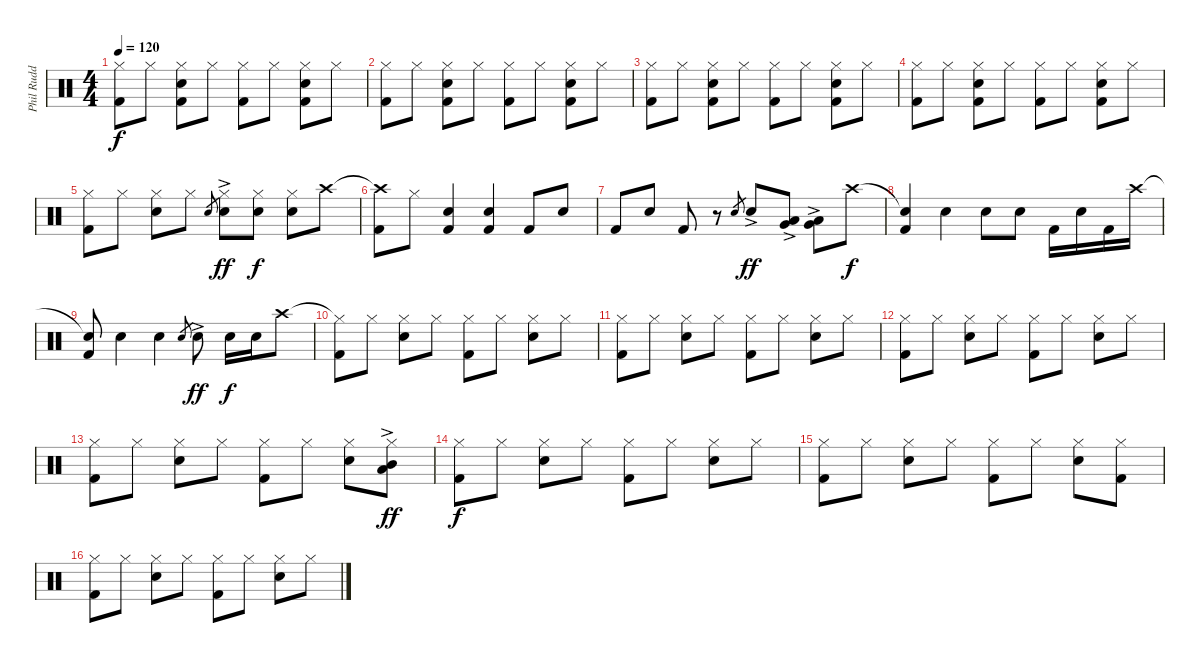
\track ("Phil Rudd" "Phil Rudd") {instrument percussion}
\staff {score}
\articulation defaults
\ts (4 4)
\tempo 120
\clef neutral
\ks c
("Hi-Hat (closed)" "Kick (hit) 2").8{dy f} "Hi-Hat (closed)".8 ("Hi-Hat (closed)" "Snare (hit) 2" "Kick (hit) 2").8 "Hi-Hat (closed)".8 ("Hi-Hat (closed)" "Kick (hit) 2").8 "Hi-Hat (closed)".8 ("Hi-Hat (closed)" "Snare (hit) 2" "Kick (hit) 2").8 "Hi-Hat (closed)".8 |
("Hi-Hat (closed)" "Kick (hit) 2").8 "Hi-Hat (closed)".8 ("Hi-Hat (closed)" "Snare (hit) 2" "Kick (hit) 2").8 "Hi-Hat (closed)".8 ("Hi-Hat (closed)" "Kick (hit) 2").8 "Hi-Hat (closed)".8 ("Hi-Hat (closed)" "Snare (hit) 2" "Kick (hit) 2").8 "Hi-Hat (closed)".8 |
("Hi-Hat (closed)" "Kick (hit) 2").8 "Hi-Hat (closed)".8 ("Hi-Hat (closed)" "Snare (hit) 2" "Kick (hit) 2").8 "Hi-Hat (closed)".8 ("Hi-Hat (closed)" "Kick (hit) 2").8 "Hi-Hat (closed)".8 ("Hi-Hat (closed)" "Snare (hit) 2" "Kick (hit) 2").8 "Hi-Hat (closed)".8 |
("Hi-Hat (closed)" "Kick (hit) 2").8 "Hi-Hat (closed)".8 ("Hi-Hat (closed)" "Snare (hit) 2" "Kick (hit) 2").8 "Hi-Hat (closed)".8 ("Hi-Hat (closed)" "Kick (hit) 2").8 "Hi-Hat (closed)".8 ("Hi-Hat (closed)" "Snare (hit) 2" "Kick (hit) 2").8 "Hi-Hat (closed)".8 |
("Hi-Hat (closed)" "Kick (hit) 2").8 "Hi-Hat (closed)".8 ("Hi-Hat (closed)" "Snare (hit) 2").8 "Hi-Hat (closed)".8 "Snare (hit) 2".8{gr} ("Hi-Hat (closed)" "Snare (hit) 2"{ac}).8{dy ff} ("Hi-Hat (closed)" "Snare (hit) 2").8{dy f} ("Hi-Hat (closed)" "Snare (hit) 2").8 "Crash high (hit)".8 |
("Crash high (hit)"{t} "Kick (hit) 2").8 "Hi-Hat (closed)".8 ("Snare (hit) 2" "Kick (hit) 2").4 ("Snare (hit) 2" "Kick (hit) 2").4 "Kick (hit) 2".8 "Snare (hit) 2".8 |
"Kick (hit) 2".8 "Snare (hit) 2".8 "Kick (hit) 2".8 r.8 "Snare (hit) 2".8{gr} "Snare (hit) 2"{ac}.8{dy ff} ("Low Tom (hit)"{ac} "Very Low Tom (hit)").8 ("Low Tom (hit)"{ac} "Very Low Tom (hit)").8 "Crash high (hit)".8{dy f} |
("Snare (hit)"{t} "Kick (hit) 2").4 "Snare (hit) 2".4 "Snare (hit) 2".8 "Snare (hit) 2".8 "Kick (hit) 2".16 "Snare (hit) 2".16 "Kick (hit) 2".16 "Crash high (hit)".16 |
("Snare (hit)"{t} "Kick (hit) 2").8 "Snare (hit) 2".4 "Snare (hit) 2".4 "Snare (hit) 2".8{gr} "Snare (hit) 2"{ac}.8{dy ff} "Snare (hit) 2".16{dy f} "Snare (hit) 2".16 "Crash high (hit)".8 |
("Hi-Hat (closed)"{t} "Kick (hit) 2").8 "Hi-Hat (closed)".8 ("Hi-Hat (closed)" "Snare (hit) 2").8 "Hi-Hat (closed)".8 ("Hi-Hat (closed)" "Kick (hit) 2").8 "Hi-Hat (closed)".8 ("Hi-Hat (closed)" "Snare (hit) 2").8 "Hi-Hat (closed)".8 |
("Hi-Hat (closed)" "Kick (hit) 2").8 "Hi-Hat (closed)".8 ("Hi-Hat (closed)" "Snare (hit) 2").8 "Hi-Hat (closed)".8 ("Hi-Hat (closed)" "Kick (hit) 2").8 "Hi-Hat (closed)".8 ("Hi-Hat (closed)" "Snare (hit) 2").8 "Hi-Hat (closed)".8 |
("Hi-Hat (closed)" "Kick (hit) 2").8 "Hi-Hat (closed)".8 ("Hi-Hat (closed)" "Snare (hit) 2").8 "Hi-Hat (closed)".8 ("Hi-Hat (closed)" "Kick (hit) 2").8 "Hi-Hat (closed)".8 ("Hi-Hat (closed)" "Snare (hit) 2").8 "Hi-Hat (closed)".8 |
("Hi-Hat (closed)" "Kick (hit) 2").8 "Hi-Hat (closed)".8 ("Hi-Hat (closed)" "Snare (hit) 2").8 "Hi-Hat (closed)".8 ("Hi-Hat (closed)" "Kick (hit) 2").8 "Hi-Hat (closed)".8 ("Hi-Hat (closed)" "Snare (hit) 2").8 ("Hi-Hat (closed)" "Low Tom (hit)"{ac} "Mid Tom (hit)").8{dy ff} |
("Hi-Hat (closed)" "Kick (hit) 2").8{dy f} "Hi-Hat (closed)".8 ("Hi-Hat (closed)" "Snare (hit) 2").8 "Hi-Hat (closed)".8 ("Hi-Hat (closed)" "Kick (hit) 2").8 "Hi-Hat (closed)".8 ("Hi-Hat (closed)" "Snare (hit) 2").8 "Hi-Hat (closed)".8 |
("Hi-Hat (closed)" "Kick (hit) 2").8 "Hi-Hat (closed)".8 ("Hi-Hat (closed)" "Snare (hit) 2").8 "Hi-Hat (closed)".8 ("Hi-Hat (closed)" "Kick (hit) 2").8 "Hi-Hat (closed)".8 ("Hi-Hat (closed)" "Snare (hit) 2").8 ("Hi-Hat (closed)" "Kick (hit) 2").8 |
("Hi-Hat (closed)" "Kick (hit) 2").8 "Hi-Hat (closed)".8 ("Hi-Hat (closed)" "Snare (hit) 2").8 "Hi-Hat (closed)".8 ("Hi-Hat (closed)" "Kick (hit) 2").8 "Hi-Hat (closed)".8 ("Hi-Hat (closed)" "Snare (hit) 2").8 "Hi-Hat (closed)".8
